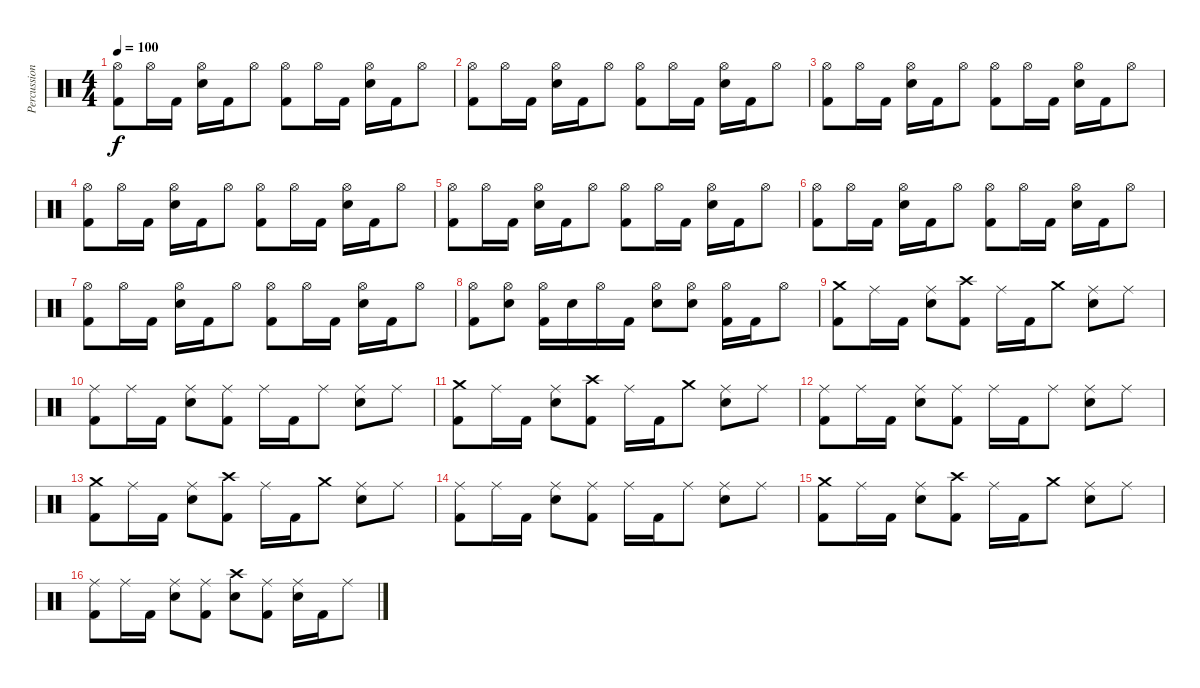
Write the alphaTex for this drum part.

\track ("Percussions" "Percussion") {instrument percussion}
\staff {score}
\articulation defaults
\ts (4 4)
\tempo 100
\clef neutral
\ks c
("Hi-Hat (open)" "Kick (hit) 2").8{dy f} "Hi-Hat (open)".16 "Kick (hit) 2".16 ("Electric Snare (hit)" "Hi-Hat (open)").16 "Kick (hit) 2".16 "Hi-Hat (open)".8 ("Hi-Hat (open)" "Kick (hit) 2").8 "Hi-Hat (open)".16 "Kick (hit) 2".16 ("Electric Snare (hit)" "Hi-Hat (open)").16 "Kick (hit) 2".16 "Hi-Hat (open)".8 |
("Hi-Hat (open)" "Kick (hit) 2").8 "Hi-Hat (open)".16 "Kick (hit) 2".16 ("Electric Snare (hit)" "Hi-Hat (open)").16 "Kick (hit) 2".16 "Hi-Hat (open)".8 ("Hi-Hat (open)" "Kick (hit) 2").8 "Hi-Hat (open)".16 "Kick (hit) 2".16 ("Electric Snare (hit)" "Hi-Hat (open)").16 "Kick (hit) 2".16 "Hi-Hat (open)".8 |
("Hi-Hat (open)" "Kick (hit) 2").8 "Hi-Hat (open)".16 "Kick (hit) 2".16 ("Electric Snare (hit)" "Hi-Hat (open)").16 "Kick (hit) 2".16 "Hi-Hat (open)".8 ("Hi-Hat (open)" "Kick (hit) 2").8 "Hi-Hat (open)".16 "Kick (hit) 2".16 ("Electric Snare (hit)" "Hi-Hat (open)").16 "Kick (hit) 2".16 "Hi-Hat (open)".8 |
("Hi-Hat (open)" "Kick (hit) 2").8 "Hi-Hat (open)".16 "Kick (hit) 2".16 ("Electric Snare (hit)" "Hi-Hat (open)").16 "Kick (hit) 2".16 "Hi-Hat (open)".8 ("Hi-Hat (open)" "Kick (hit) 2").8 "Hi-Hat (open)".16 "Kick (hit) 2".16 ("Electric Snare (hit)" "Hi-Hat (open)").16 "Kick (hit) 2".16 "Hi-Hat (open)".8 |
("Hi-Hat (open)" "Kick (hit) 2").8 "Hi-Hat (open)".16 "Kick (hit) 2".16 ("Electric Snare (hit)" "Hi-Hat (open)").16 "Kick (hit) 2".16 "Hi-Hat (open)".8 ("Hi-Hat (open)" "Kick (hit) 2").8 "Hi-Hat (open)".16 "Kick (hit) 2".16 ("Electric Snare (hit)" "Hi-Hat (open)").16 "Kick (hit) 2".16 "Hi-Hat (open)".8 |
("Hi-Hat (open)" "Kick (hit) 2").8 "Hi-Hat (open)".16 "Kick (hit) 2".16 ("Electric Snare (hit)" "Hi-Hat (open)").16 "Kick (hit) 2".16 "Hi-Hat (open)".8 ("Hi-Hat (open)" "Kick (hit) 2").8 "Hi-Hat (open)".16 "Kick (hit) 2".16 ("Electric Snare (hit)" "Hi-Hat (open)").16 "Kick (hit) 2".16 "Hi-Hat (open)".8 |
("Hi-Hat (open)" "Kick (hit) 2").8 "Hi-Hat (open)".16 "Kick (hit) 2".16 ("Electric Snare (hit)" "Hi-Hat (open)").16 "Kick (hit) 2".16 "Hi-Hat (open)".8 ("Hi-Hat (open)" "Kick (hit) 2").8 "Hi-Hat (open)".16 "Kick (hit) 2".16 ("Electric Snare (hit)" "Hi-Hat (open)").16 "Kick (hit) 2".16 "Hi-Hat (open)".8 |
("Hi-Hat (open)" "Kick (hit) 2").8 ("Electric Snare (hit)" "Hi-Hat (open)").8 ("Hi-Hat (open)" "Kick (hit) 2").16 "Electric Snare (hit)".16 "Hi-Hat (open)".16 "Kick (hit) 2".16 ("Electric Snare (hit)" "Hi-Hat (open)").8 ("Electric Snare (hit)" "Hi-Hat (open)").8 ("Hi-Hat (open)" "Kick (hit) 2").16 "Kick (hit) 2".16 "Hi-Hat (open)".8 |
("Crash medium (hit)" "Kick (hit) 2").8 "Ride (middle)".16 "Kick (hit) 2".16 ("Electric Snare (hit)" "Ride (middle)").8 ("Crash high (hit)" "Kick (hit) 2").8 "Ride (middle)".16 "Kick (hit) 2".16 "Crash medium (hit)".8 ("Electric Snare (hit)" "Ride (middle)").8 "Ride (middle)".8 |
("Ride (middle)" "Kick (hit) 2").8 "Ride (middle)".16 "Kick (hit) 2".16 ("Electric Snare (hit)" "Ride (middle)").8 ("Ride (middle)" "Kick (hit) 2").8 "Ride (middle)".16 "Kick (hit) 2".16 "Ride (middle)".8 ("Electric Snare (hit)" "Ride (middle)").8 "Ride (middle)".8 |
("Crash medium (hit)" "Kick (hit) 2").8 "Ride (middle)".16 "Kick (hit) 2".16 ("Electric Snare (hit)" "Ride (middle)").8 ("Crash high (hit)" "Kick (hit) 2").8 "Ride (middle)".16 "Kick (hit) 2".16 "Crash medium (hit)".8 ("Electric Snare (hit)" "Ride (middle)").8 "Ride (middle)".8 |
("Ride (middle)" "Kick (hit) 2").8 "Ride (middle)".16 "Kick (hit) 2".16 ("Electric Snare (hit)" "Ride (middle)").8 ("Ride (middle)" "Kick (hit) 2").8 "Ride (middle)".16 "Kick (hit) 2".16 "Ride (middle)".8 ("Electric Snare (hit)" "Ride (middle)").8 "Ride (middle)".8 |
("Crash medium (hit)" "Kick (hit) 2").8 "Ride (middle)".16 "Kick (hit) 2".16 ("Electric Snare (hit)" "Ride (middle)").8 ("Crash high (hit)" "Kick (hit) 2").8 "Ride (middle)".16 "Kick (hit) 2".16 "Crash medium (hit)".8 ("Electric Snare (hit)" "Ride (middle)").8 "Ride (middle)".8 |
("Ride (middle)" "Kick (hit) 2").8 "Ride (middle)".16 "Kick (hit) 2".16 ("Electric Snare (hit)" "Ride (middle)").8 ("Ride (middle)" "Kick (hit) 2").8 "Ride (middle)".16 "Kick (hit) 2".16 "Ride (middle)".8 ("Electric Snare (hit)" "Ride (middle)").8 "Ride (middle)".8 |
("Crash medium (hit)" "Kick (hit) 2").8 "Ride (middle)".16 "Kick (hit) 2".16 ("Electric Snare (hit)" "Ride (middle)").8 ("Crash high (hit)" "Kick (hit) 2").8 "Ride (middle)".16 "Kick (hit) 2".16 "Crash medium (hit)".8 ("Electric Snare (hit)" "Ride (middle)").8 "Ride (middle)".8 |
("Ride (middle)" "Kick (hit) 2").8 "Ride (middle)".16 "Kick (hit) 2".16 ("Electric Snare (hit)" "Ride (middle)").8 ("Ride (middle)" "Kick (hit) 2").8 ("Electric Snare (hit)" "Crash high (hit)").8 ("Ride (middle)" "Kick (hit) 2").8 ("Electric Snare (hit)" "Ride (middle)").16 "Kick (hit) 2".16 "Ride (middle)".8
